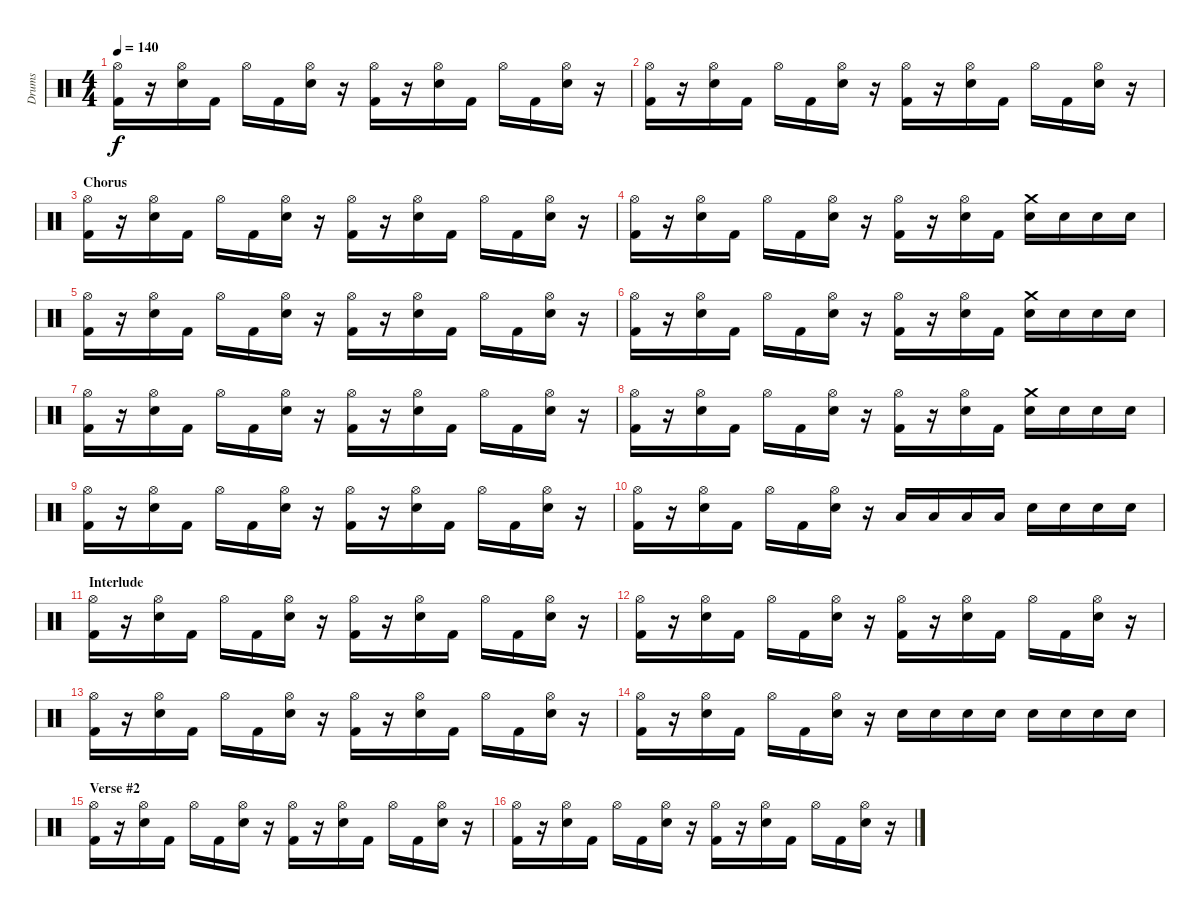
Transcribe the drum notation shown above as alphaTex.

\track ("Drums" "Drums") {instrument percussion}
\staff {score}
\articulation defaults
\ts (4 4)
\tempo 140
\clef neutral
\ks c
("Hi-Hat (open)" "Kick (hit) 2").16{dy f} r.16 ("Hi-Hat (open)" "Electric Snare (hit)").16 "Kick (hit) 2".16 "Hi-Hat (open)".16 "Kick (hit) 2".16 ("Hi-Hat (open)" "Electric Snare (hit)").16 r.16 ("Hi-Hat (open)" "Kick (hit) 2").16 r.16 ("Hi-Hat (open)" "Electric Snare (hit)").16 "Kick (hit) 2".16 "Hi-Hat (open)".16 "Kick (hit) 2".16 ("Hi-Hat (open)" "Electric Snare (hit)").16 r.16 |
("Hi-Hat (open)" "Kick (hit) 2").16 r.16 ("Hi-Hat (open)" "Electric Snare (hit)").16 "Kick (hit) 2".16 "Hi-Hat (open)".16 "Kick (hit) 2".16 ("Hi-Hat (open)" "Electric Snare (hit)").16 r.16 ("Hi-Hat (open)" "Kick (hit) 2").16 r.16 ("Hi-Hat (open)" "Electric Snare (hit)").16 "Kick (hit) 2".16 "Hi-Hat (open)".16 "Kick (hit) 2".16 ("Hi-Hat (open)" "Electric Snare (hit)").16 r.16 |
\section ("" "Chorus")
("Hi-Hat (open)" "Kick (hit) 2").16 r.16 ("Hi-Hat (open)" "Electric Snare (hit)").16 "Kick (hit) 2".16 "Hi-Hat (open)".16 "Kick (hit) 2".16 ("Hi-Hat (open)" "Electric Snare (hit)").16 r.16 ("Hi-Hat (open)" "Kick (hit) 2").16 r.16 ("Hi-Hat (open)" "Electric Snare (hit)").16 "Kick (hit) 2".16 "Hi-Hat (open)".16 "Kick (hit) 2".16 ("Hi-Hat (open)" "Electric Snare (hit)").16 r.16 |
("Hi-Hat (open)" "Kick (hit) 2").16 r.16 ("Hi-Hat (open)" "Electric Snare (hit)").16 "Kick (hit) 2".16 "Hi-Hat (open)".16 "Kick (hit) 2".16 ("Hi-Hat (open)" "Electric Snare (hit)").16 r.16 ("Hi-Hat (open)" "Kick (hit) 2").16 r.16 ("Hi-Hat (open)" "Electric Snare (hit)").16 "Kick (hit) 2".16 ("Crash medium (hit)" "Electric Snare (hit)").16 "Electric Snare (hit)".16 "Electric Snare (hit)".16 "Electric Snare (hit)".16 |
("Hi-Hat (open)" "Kick (hit) 2").16 r.16 ("Hi-Hat (open)" "Electric Snare (hit)").16 "Kick (hit) 2".16 "Hi-Hat (open)".16 "Kick (hit) 2".16 ("Hi-Hat (open)" "Electric Snare (hit)").16 r.16 ("Hi-Hat (open)" "Kick (hit) 2").16 r.16 ("Hi-Hat (open)" "Electric Snare (hit)").16 "Kick (hit) 2".16 "Hi-Hat (open)".16 "Kick (hit) 2".16 ("Hi-Hat (open)" "Electric Snare (hit)").16 r.16 |
("Hi-Hat (open)" "Kick (hit) 2").16 r.16 ("Hi-Hat (open)" "Electric Snare (hit)").16 "Kick (hit) 2".16 "Hi-Hat (open)".16 "Kick (hit) 2".16 ("Hi-Hat (open)" "Electric Snare (hit)").16 r.16 ("Hi-Hat (open)" "Kick (hit) 2").16 r.16 ("Hi-Hat (open)" "Electric Snare (hit)").16 "Kick (hit) 2".16 ("Crash medium (hit)" "Electric Snare (hit)").16 "Electric Snare (hit)".16 "Electric Snare (hit)".16 "Electric Snare (hit)".16 |
("Hi-Hat (open)" "Kick (hit) 2").16 r.16 ("Hi-Hat (open)" "Electric Snare (hit)").16 "Kick (hit) 2".16 "Hi-Hat (open)".16 "Kick (hit) 2".16 ("Hi-Hat (open)" "Electric Snare (hit)").16 r.16 ("Hi-Hat (open)" "Kick (hit) 2").16 r.16 ("Hi-Hat (open)" "Electric Snare (hit)").16 "Kick (hit) 2".16 "Hi-Hat (open)".16 "Kick (hit) 2".16 ("Hi-Hat (open)" "Electric Snare (hit)").16 r.16 |
("Hi-Hat (open)" "Kick (hit) 2").16 r.16 ("Hi-Hat (open)" "Electric Snare (hit)").16 "Kick (hit) 2".16 "Hi-Hat (open)".16 "Kick (hit) 2".16 ("Hi-Hat (open)" "Electric Snare (hit)").16 r.16 ("Hi-Hat (open)" "Kick (hit) 2").16 r.16 ("Hi-Hat (open)" "Electric Snare (hit)").16 "Kick (hit) 2".16 ("Crash medium (hit)" "Electric Snare (hit)").16 "Electric Snare (hit)".16 "Electric Snare (hit)".16 "Electric Snare (hit)".16 |
("Hi-Hat (open)" "Kick (hit) 2").16 r.16 ("Hi-Hat (open)" "Electric Snare (hit)").16 "Kick (hit) 2".16 "Hi-Hat (open)".16 "Kick (hit) 2".16 ("Hi-Hat (open)" "Electric Snare (hit)").16 r.16 ("Hi-Hat (open)" "Kick (hit) 2").16 r.16 ("Hi-Hat (open)" "Electric Snare (hit)").16 "Kick (hit) 2".16 "Hi-Hat (open)".16 "Kick (hit) 2".16 ("Hi-Hat (open)" "Electric Snare (hit)").16 r.16 |
("Hi-Hat (open)" "Kick (hit) 2").16 r.16 ("Hi-Hat (open)" "Electric Snare (hit)").16 "Kick (hit) 2".16 "Hi-Hat (open)".16 "Kick (hit) 2".16 ("Hi-Hat (open)" "Electric Snare (hit)").16 r.16 "Low Tom (hit)".16 "Low Tom (hit)".16 "Low Tom (hit)".16 "Low Tom (hit)".16 "Electric Snare (hit)".16 "Electric Snare (hit)".16 "Electric Snare (hit)".16 "Electric Snare (hit)".16 |
\section ("" "Interlude")
("Hi-Hat (open)" "Kick (hit) 2").16 r.16 ("Hi-Hat (open)" "Electric Snare (hit)").16 "Kick (hit) 2".16 "Hi-Hat (open)".16 "Kick (hit) 2".16 ("Hi-Hat (open)" "Electric Snare (hit)").16 r.16 ("Hi-Hat (open)" "Kick (hit) 2").16 r.16 ("Hi-Hat (open)" "Electric Snare (hit)").16 "Kick (hit) 2".16 "Hi-Hat (open)".16 "Kick (hit) 2".16 ("Hi-Hat (open)" "Electric Snare (hit)").16 r.16 |
("Hi-Hat (open)" "Kick (hit) 2").16 r.16 ("Hi-Hat (open)" "Electric Snare (hit)").16 "Kick (hit) 2".16 "Hi-Hat (open)".16 "Kick (hit) 2".16 ("Hi-Hat (open)" "Electric Snare (hit)").16 r.16 ("Hi-Hat (open)" "Kick (hit) 2").16 r.16 ("Hi-Hat (open)" "Electric Snare (hit)").16 "Kick (hit) 2".16 "Hi-Hat (open)".16 "Kick (hit) 2".16 ("Hi-Hat (open)" "Electric Snare (hit)").16 r.16 |
("Hi-Hat (open)" "Kick (hit) 2").16 r.16 ("Hi-Hat (open)" "Electric Snare (hit)").16 "Kick (hit) 2".16 "Hi-Hat (open)".16 "Kick (hit) 2".16 ("Hi-Hat (open)" "Electric Snare (hit)").16 r.16 ("Hi-Hat (open)" "Kick (hit) 2").16 r.16 ("Hi-Hat (open)" "Electric Snare (hit)").16 "Kick (hit) 2".16 "Hi-Hat (open)".16 "Kick (hit) 2".16 ("Hi-Hat (open)" "Electric Snare (hit)").16 r.16 |
("Hi-Hat (open)" "Kick (hit) 2").16 r.16 ("Hi-Hat (open)" "Electric Snare (hit)").16 "Kick (hit) 2".16 "Hi-Hat (open)".16 "Kick (hit) 2".16 ("Hi-Hat (open)" "Electric Snare (hit)").16 r.16 "Electric Snare (hit)".16 "Electric Snare (hit)".16 "Electric Snare (hit)".16 "Electric Snare (hit)".16 "Electric Snare (hit)".16 "Electric Snare (hit)".16 "Electric Snare (hit)".16 "Electric Snare (hit)".16 |
\section ("" "Verse #2")
("Hi-Hat (open)" "Kick (hit) 2").16 r.16 ("Hi-Hat (open)" "Electric Snare (hit)").16 "Kick (hit) 2".16 "Hi-Hat (open)".16 "Kick (hit) 2".16 ("Hi-Hat (open)" "Electric Snare (hit)").16 r.16 ("Hi-Hat (open)" "Kick (hit) 2").16 r.16 ("Hi-Hat (open)" "Electric Snare (hit)").16 "Kick (hit) 2".16 "Hi-Hat (open)".16 "Kick (hit) 2".16 ("Hi-Hat (open)" "Electric Snare (hit)").16 r.16 |
("Hi-Hat (open)" "Kick (hit) 2").16 r.16 ("Hi-Hat (open)" "Electric Snare (hit)").16 "Kick (hit) 2".16 "Hi-Hat (open)".16 "Kick (hit) 2".16 ("Hi-Hat (open)" "Electric Snare (hit)").16 r.16 ("Hi-Hat (open)" "Kick (hit) 2").16 r.16 ("Hi-Hat (open)" "Electric Snare (hit)").16 "Kick (hit) 2".16 "Hi-Hat (open)".16 "Kick (hit) 2".16 ("Hi-Hat (open)" "Electric Snare (hit)").16 r.16
